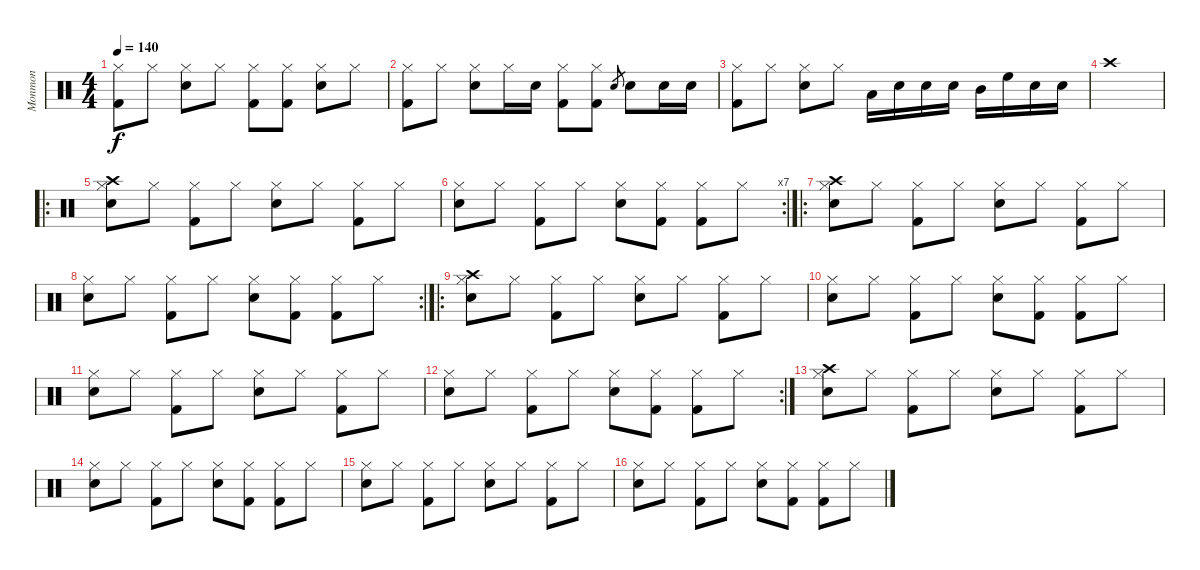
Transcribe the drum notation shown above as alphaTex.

\track ("Monmon" "Monmon") {instrument percussion}
\staff {score}
\articulation defaults
\ts (4 4)
\tempo 140
\clef neutral
\ks c
("Hi-Hat (closed)" "Kick (hit) 2").8{dy f} "Hi-Hat (closed)".8 ("Hi-Hat (closed)" "Snare (hit) 2").8 "Hi-Hat (closed)".8 ("Hi-Hat (closed)" "Kick (hit) 2").8 ("Hi-Hat (closed)" "Kick (hit) 2").8 ("Hi-Hat (closed)" "Snare (hit) 2").8 "Hi-Hat (closed)".8 |
("Hi-Hat (closed)" "Kick (hit) 2").8 "Hi-Hat (closed)".8 ("Hi-Hat (closed)" "Snare (hit) 2").8 "Hi-Hat (closed)".16 "Snare (hit) 2".16 ("Hi-Hat (closed)" "Kick (hit) 2").8 ("Hi-Hat (closed)" "Kick (hit) 2").8 "Snare (hit) 2".8{gr} "Snare (hit) 2".8 "Snare (hit) 2".16 "Snare (hit) 2".16 |
("Hi-Hat (closed)" "Kick (hit) 2").8 "Hi-Hat (closed)".8 ("Hi-Hat (closed)" "Snare (hit) 2").8 "Hi-Hat (closed)".8 "Low Tom (hit)".16 "Snare (hit) 2".16 "Snare (hit) 2".16 "Snare (hit) 2".16 "Mid Tom (hit)".16 "High Floor Tom (hit)".16 "Snare (hit) 2".16 "Snare (hit) 2".16 |
"Crash high (hit)".1 |
\ro
("Crash high (hit)" "Hi-Hat (closed)" "Snare (hit) 2").8 "Hi-Hat (closed)".8 ("Hi-Hat (closed)" "Kick (hit) 2").8 "Hi-Hat (closed)".8 ("Hi-Hat (closed)" "Snare (hit) 2").8 "Hi-Hat (closed)".8 ("Hi-Hat (closed)" "Kick (hit) 2").8 "Hi-Hat (closed)".8 |
\rc 7
("Hi-Hat (closed)" "Snare (hit) 2").8 "Hi-Hat (closed)".8 ("Hi-Hat (closed)" "Kick (hit) 2").8 "Hi-Hat (closed)".8 ("Hi-Hat (closed)" "Snare (hit) 2").8 ("Hi-Hat (closed)" "Kick (hit) 2").8 ("Hi-Hat (closed)" "Kick (hit) 2").8 "Hi-Hat (closed)".8 |
\ro
("Crash high (hit)" "Hi-Hat (closed)" "Snare (hit) 2").8 "Hi-Hat (closed)".8 ("Hi-Hat (closed)" "Kick (hit) 2").8 "Hi-Hat (closed)".8 ("Hi-Hat (closed)" "Snare (hit) 2").8 "Hi-Hat (closed)".8 ("Hi-Hat (closed)" "Kick (hit) 2").8 "Hi-Hat (closed)".8 |
\rc 2
("Hi-Hat (closed)" "Snare (hit) 2").8 "Hi-Hat (closed)".8 ("Hi-Hat (closed)" "Kick (hit) 2").8 "Hi-Hat (closed)".8 ("Hi-Hat (closed)" "Snare (hit) 2").8 ("Hi-Hat (closed)" "Kick (hit) 2").8 ("Hi-Hat (closed)" "Kick (hit) 2").8 "Hi-Hat (closed)".8 |
\ro
("Crash high (hit)" "Hi-Hat (closed)" "Snare (hit) 2").8 "Hi-Hat (closed)".8 ("Hi-Hat (closed)" "Kick (hit) 2").8 "Hi-Hat (closed)".8 ("Hi-Hat (closed)" "Snare (hit) 2").8 "Hi-Hat (closed)".8 ("Hi-Hat (closed)" "Kick (hit) 2").8 "Hi-Hat (closed)".8 |
("Hi-Hat (closed)" "Snare (hit) 2").8 "Hi-Hat (closed)".8 ("Hi-Hat (closed)" "Kick (hit) 2").8 "Hi-Hat (closed)".8 ("Hi-Hat (closed)" "Snare (hit) 2").8 ("Hi-Hat (closed)" "Kick (hit) 2").8 ("Hi-Hat (closed)" "Kick (hit) 2").8 "Hi-Hat (closed)".8 |
("Hi-Hat (closed)" "Snare (hit) 2").8 "Hi-Hat (closed)".8 ("Hi-Hat (closed)" "Kick (hit) 2").8 "Hi-Hat (closed)".8 ("Hi-Hat (closed)" "Snare (hit) 2").8 "Hi-Hat (closed)".8 ("Hi-Hat (closed)" "Kick (hit) 2").8 "Hi-Hat (closed)".8 |
\rc 2
("Hi-Hat (closed)" "Snare (hit) 2").8 "Hi-Hat (closed)".8 ("Hi-Hat (closed)" "Kick (hit) 2").8 "Hi-Hat (closed)".8 ("Hi-Hat (closed)" "Snare (hit) 2").8 ("Hi-Hat (closed)" "Kick (hit) 2").8 ("Hi-Hat (closed)" "Kick (hit) 2").8 "Hi-Hat (closed)".8 |
("Crash high (hit)" "Hi-Hat (closed)" "Snare (hit) 2").8 "Hi-Hat (closed)".8 ("Hi-Hat (closed)" "Kick (hit) 2").8 "Hi-Hat (closed)".8 ("Hi-Hat (closed)" "Snare (hit) 2").8 "Hi-Hat (closed)".8 ("Hi-Hat (closed)" "Kick (hit) 2").8 "Hi-Hat (closed)".8 |
("Hi-Hat (closed)" "Snare (hit) 2").8 "Hi-Hat (closed)".8 ("Hi-Hat (closed)" "Kick (hit) 2").8 "Hi-Hat (closed)".8 ("Hi-Hat (closed)" "Snare (hit) 2").8 ("Hi-Hat (closed)" "Kick (hit) 2").8 ("Hi-Hat (closed)" "Kick (hit) 2").8 "Hi-Hat (closed)".8 |
("Hi-Hat (closed)" "Snare (hit) 2").8 "Hi-Hat (closed)".8 ("Hi-Hat (closed)" "Kick (hit) 2").8 "Hi-Hat (closed)".8 ("Hi-Hat (closed)" "Snare (hit) 2").8 "Hi-Hat (closed)".8 ("Hi-Hat (closed)" "Kick (hit) 2").8 "Hi-Hat (closed)".8 |
("Hi-Hat (closed)" "Snare (hit) 2").8 "Hi-Hat (closed)".8 ("Hi-Hat (closed)" "Kick (hit) 2").8 "Hi-Hat (closed)".8 ("Hi-Hat (closed)" "Snare (hit) 2").8 ("Hi-Hat (closed)" "Kick (hit) 2").8 ("Hi-Hat (closed)" "Kick (hit) 2").8 "Hi-Hat (closed)".8
